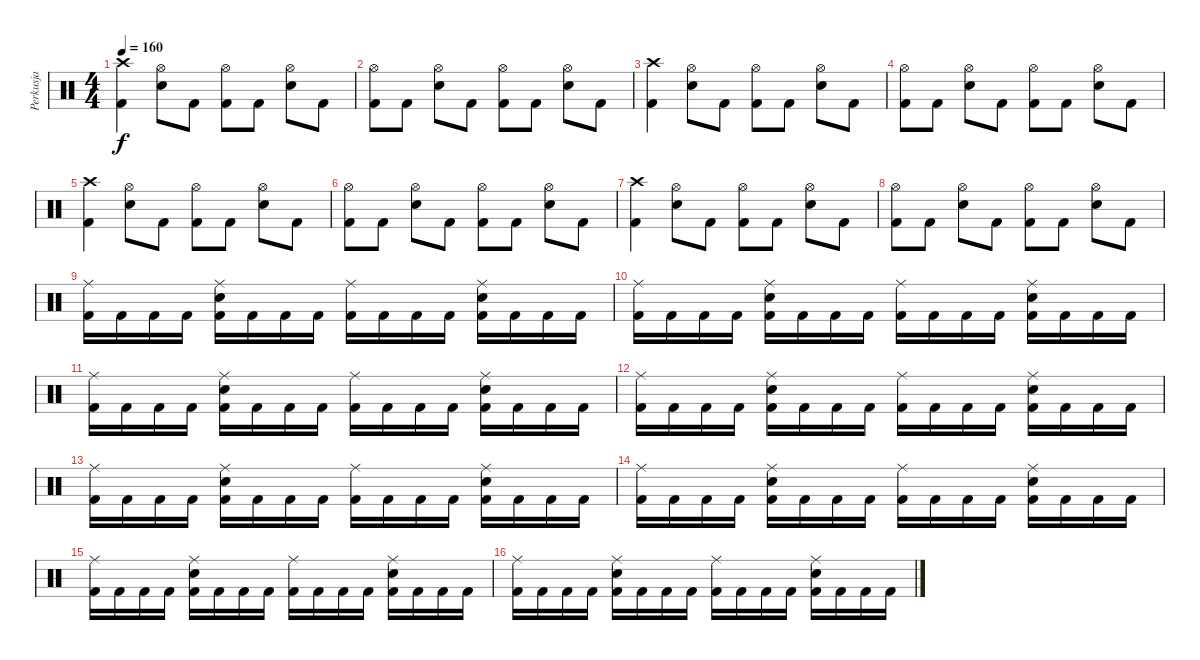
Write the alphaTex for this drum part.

\track ("Perkusja" "Perkusja") {instrument percussion}
\staff {score}
\articulation defaults
\ts (4 4)
\tempo 160
\clef neutral
\ks c
("Crash high (hit)" "Kick (hit) 2").4{dy f} ("Hi-Hat (open)" "Electric Snare (hit)").8 "Kick (hit) 2".8 ("Hi-Hat (open)" "Kick (hit) 2").8 "Kick (hit) 2".8 ("Hi-Hat (open)" "Electric Snare (hit)").8 "Kick (hit) 2".8 |
("Hi-Hat (open)" "Kick (hit) 2").8 "Kick (hit) 2".8 ("Hi-Hat (open)" "Electric Snare (hit)").8 "Kick (hit) 2".8 ("Hi-Hat (open)" "Kick (hit) 2").8 "Kick (hit) 2".8 ("Hi-Hat (open)" "Electric Snare (hit)").8 "Kick (hit) 2".8 |
("Crash high (hit)" "Kick (hit) 2").4 ("Hi-Hat (open)" "Electric Snare (hit)").8 "Kick (hit) 2".8 ("Hi-Hat (open)" "Kick (hit) 2").8 "Kick (hit) 2".8 ("Hi-Hat (open)" "Electric Snare (hit)").8 "Kick (hit) 2".8 |
("Hi-Hat (open)" "Kick (hit) 2").8 "Kick (hit) 2".8 ("Hi-Hat (open)" "Electric Snare (hit)").8 "Kick (hit) 2".8 ("Hi-Hat (open)" "Kick (hit) 2").8 "Kick (hit) 2".8 ("Hi-Hat (open)" "Electric Snare (hit)").8 "Kick (hit) 2".8 |
("Crash high (hit)" "Kick (hit) 2").4 ("Hi-Hat (open)" "Electric Snare (hit)").8 "Kick (hit) 2".8 ("Hi-Hat (open)" "Kick (hit) 2").8 "Kick (hit) 2".8 ("Hi-Hat (open)" "Electric Snare (hit)").8 "Kick (hit) 2".8 |
("Hi-Hat (open)" "Kick (hit) 2").8 "Kick (hit) 2".8 ("Hi-Hat (open)" "Electric Snare (hit)").8 "Kick (hit) 2".8 ("Hi-Hat (open)" "Kick (hit) 2").8 "Kick (hit) 2".8 ("Hi-Hat (open)" "Electric Snare (hit)").8 "Kick (hit) 2".8 |
("Crash high (hit)" "Kick (hit) 2").4 ("Hi-Hat (open)" "Electric Snare (hit)").8 "Kick (hit) 2".8 ("Hi-Hat (open)" "Kick (hit) 2").8 "Kick (hit) 2".8 ("Hi-Hat (open)" "Electric Snare (hit)").8 "Kick (hit) 2".8 |
("Hi-Hat (open)" "Kick (hit) 2").8 "Kick (hit) 2".8 ("Hi-Hat (open)" "Electric Snare (hit)").8 "Kick (hit) 2".8 ("Hi-Hat (open)" "Kick (hit) 2").8 "Kick (hit) 2".8 ("Hi-Hat (open)" "Electric Snare (hit)").8 "Kick (hit) 2".8 |
("Ride (middle)" "Kick (hit) 2").16 "Kick (hit) 2".16 "Kick (hit) 2".16 "Kick (hit) 2".16 ("Ride (middle)" "Electric Snare (hit)" "Kick (hit) 2").16 "Kick (hit) 2".16 "Kick (hit) 2".16 "Kick (hit) 2".16 ("Ride (middle)" "Kick (hit) 2").16 "Kick (hit) 2".16 "Kick (hit) 2".16 "Kick (hit) 2".16 ("Ride (middle)" "Electric Snare (hit)" "Kick (hit) 2").16 "Kick (hit) 2".16 "Kick (hit) 2".16 "Kick (hit) 2".16 |
("Ride (middle)" "Kick (hit) 2").16 "Kick (hit) 2".16 "Kick (hit) 2".16 "Kick (hit) 2".16 ("Ride (middle)" "Electric Snare (hit)" "Kick (hit) 2").16 "Kick (hit) 2".16 "Kick (hit) 2".16 "Kick (hit) 2".16 ("Ride (middle)" "Kick (hit) 2").16 "Kick (hit) 2".16 "Kick (hit) 2".16 "Kick (hit) 2".16 ("Ride (middle)" "Electric Snare (hit)" "Kick (hit) 2").16 "Kick (hit) 2".16 "Kick (hit) 2".16 "Kick (hit) 2".16 |
("Ride (middle)" "Kick (hit) 2").16 "Kick (hit) 2".16 "Kick (hit) 2".16 "Kick (hit) 2".16 ("Ride (middle)" "Electric Snare (hit)" "Kick (hit) 2").16 "Kick (hit) 2".16 "Kick (hit) 2".16 "Kick (hit) 2".16 ("Ride (middle)" "Kick (hit) 2").16 "Kick (hit) 2".16 "Kick (hit) 2".16 "Kick (hit) 2".16 ("Ride (middle)" "Electric Snare (hit)" "Kick (hit) 2").16 "Kick (hit) 2".16 "Kick (hit) 2".16 "Kick (hit) 2".16 |
("Ride (middle)" "Kick (hit) 2").16 "Kick (hit) 2".16 "Kick (hit) 2".16 "Kick (hit) 2".16 ("Ride (middle)" "Electric Snare (hit)" "Kick (hit) 2").16 "Kick (hit) 2".16 "Kick (hit) 2".16 "Kick (hit) 2".16 ("Ride (middle)" "Kick (hit) 2").16 "Kick (hit) 2".16 "Kick (hit) 2".16 "Kick (hit) 2".16 ("Ride (middle)" "Electric Snare (hit)" "Kick (hit) 2").16 "Kick (hit) 2".16 "Kick (hit) 2".16 "Kick (hit) 2".16 |
("Ride (middle)" "Kick (hit) 2").16 "Kick (hit) 2".16 "Kick (hit) 2".16 "Kick (hit) 2".16 ("Ride (middle)" "Electric Snare (hit)" "Kick (hit) 2").16 "Kick (hit) 2".16 "Kick (hit) 2".16 "Kick (hit) 2".16 ("Ride (middle)" "Kick (hit) 2").16 "Kick (hit) 2".16 "Kick (hit) 2".16 "Kick (hit) 2".16 ("Ride (middle)" "Electric Snare (hit)" "Kick (hit) 2").16 "Kick (hit) 2".16 "Kick (hit) 2".16 "Kick (hit) 2".16 |
("Ride (middle)" "Kick (hit) 2").16 "Kick (hit) 2".16 "Kick (hit) 2".16 "Kick (hit) 2".16 ("Ride (middle)" "Electric Snare (hit)" "Kick (hit) 2").16 "Kick (hit) 2".16 "Kick (hit) 2".16 "Kick (hit) 2".16 ("Ride (middle)" "Kick (hit) 2").16 "Kick (hit) 2".16 "Kick (hit) 2".16 "Kick (hit) 2".16 ("Ride (middle)" "Electric Snare (hit)" "Kick (hit) 2").16 "Kick (hit) 2".16 "Kick (hit) 2".16 "Kick (hit) 2".16 |
("Ride (middle)" "Kick (hit) 2").16 "Kick (hit) 2".16 "Kick (hit) 2".16 "Kick (hit) 2".16 ("Ride (middle)" "Electric Snare (hit)" "Kick (hit) 2").16 "Kick (hit) 2".16 "Kick (hit) 2".16 "Kick (hit) 2".16 ("Ride (middle)" "Kick (hit) 2").16 "Kick (hit) 2".16 "Kick (hit) 2".16 "Kick (hit) 2".16 ("Ride (middle)" "Electric Snare (hit)" "Kick (hit) 2").16 "Kick (hit) 2".16 "Kick (hit) 2".16 "Kick (hit) 2".16 |
("Ride (middle)" "Kick (hit) 2").16 "Kick (hit) 2".16 "Kick (hit) 2".16 "Kick (hit) 2".16 ("Ride (middle)" "Electric Snare (hit)" "Kick (hit) 2").16 "Kick (hit) 2".16 "Kick (hit) 2".16 "Kick (hit) 2".16 ("Ride (middle)" "Kick (hit) 2").16 "Kick (hit) 2".16 "Kick (hit) 2".16 "Kick (hit) 2".16 ("Ride (middle)" "Electric Snare (hit)" "Kick (hit) 2").16 "Kick (hit) 2".16 "Kick (hit) 2".16 "Kick (hit) 2".16
